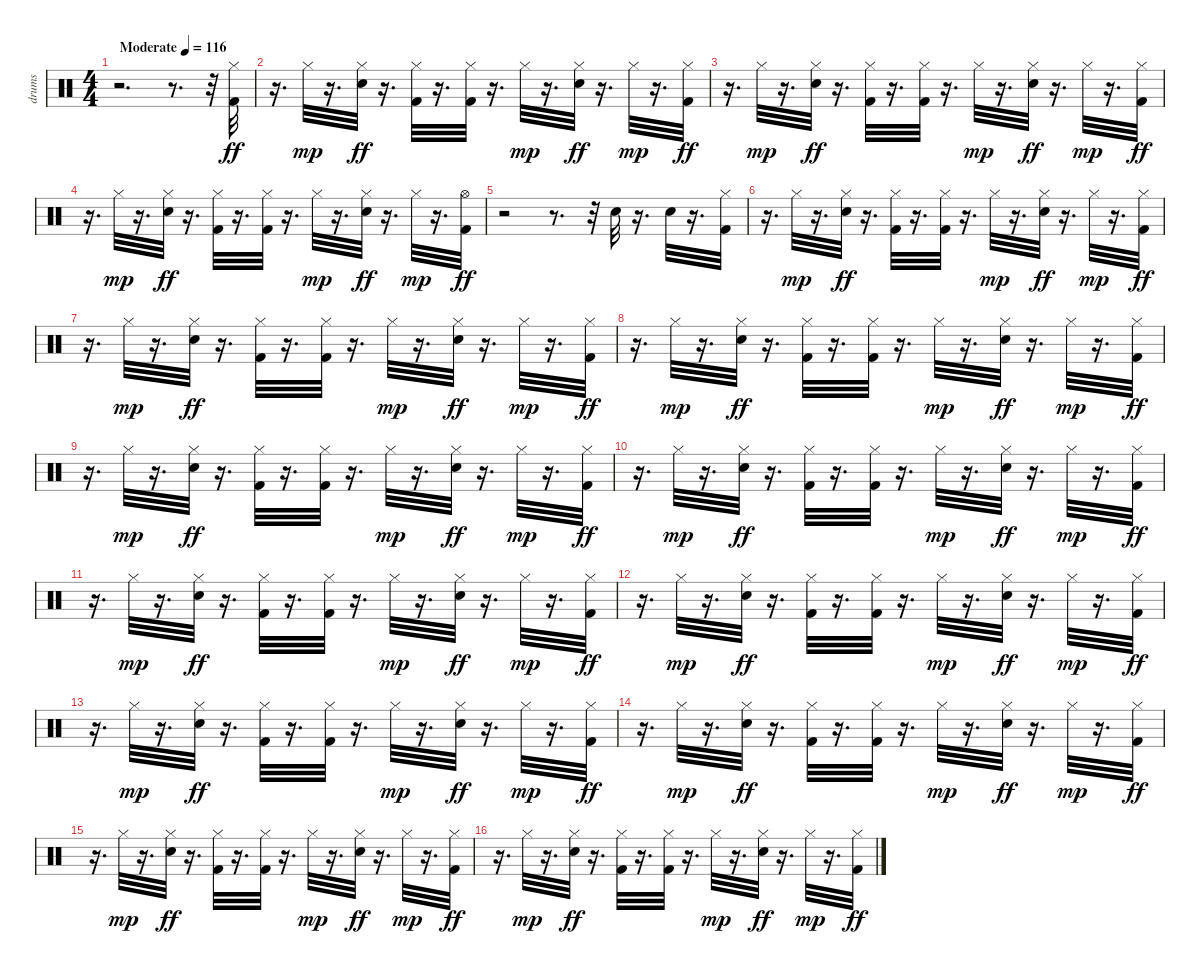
\track ("drums" "drums") {instrument percussion}
\staff {score}
\articulation defaults
\ts (4 4)
\tempo (116 "Moderate")
\clef neutral
\ks c
r.2{d dy ff} r.8{d} r.32 ("Hi-Hat (closed)" "Kick (hit) 2").32 |
r.16{d} "Hi-Hat (closed)".32{dy mp} r.16{d} ("Hi-Hat (closed)" "Snare (hit) 2").32{dy ff} r.16{d} ("Hi-Hat (closed)" "Kick (hit) 2").32 r.16{d} ("Hi-Hat (closed)" "Kick (hit) 2").32 r.16{d} "Hi-Hat (closed)".32{dy mp} r.16{d} ("Hi-Hat (closed)" "Snare (hit) 2").32{dy ff} r.16{d} "Hi-Hat (closed)".32{dy mp} r.16{d} ("Hi-Hat (closed)" "Kick (hit) 2").32{dy ff} |
r.16{d} "Hi-Hat (closed)".32{dy mp} r.16{d} ("Hi-Hat (closed)" "Snare (hit) 2").32{dy ff} r.16{d} ("Hi-Hat (closed)" "Kick (hit) 2").32 r.16{d} ("Hi-Hat (closed)" "Kick (hit) 2").32 r.16{d} "Hi-Hat (closed)".32{dy mp} r.16{d} ("Hi-Hat (closed)" "Snare (hit) 2").32{dy ff} r.16{d} "Hi-Hat (closed)".32{dy mp} r.16{d} ("Hi-Hat (closed)" "Kick (hit) 2").32{dy ff} |
r.16{d} "Hi-Hat (closed)".32{dy mp} r.16{d} ("Hi-Hat (closed)" "Snare (hit) 2").32{dy ff} r.16{d} ("Hi-Hat (closed)" "Kick (hit) 2").32 r.16{d} ("Hi-Hat (closed)" "Kick (hit) 2").32 r.16{d} "Hi-Hat (closed)".32{dy mp} r.16{d} ("Hi-Hat (closed)" "Snare (hit) 2").32{dy ff} r.16{d} "Hi-Hat (closed)".32{dy mp} r.16{d} ("Hi-Hat (open)" "Kick (hit) 2").32{dy ff} |
r.2 r.8{d} r.32 "Snare (hit) 2".32 r.16{d} "Snare (hit) 2".32 r.16{d} ("Hi-Hat (closed)" "Kick (hit) 2").32 |
r.16{d} "Hi-Hat (closed)".32{dy mp} r.16{d} ("Hi-Hat (closed)" "Snare (hit) 2").32{dy ff} r.16{d} ("Hi-Hat (closed)" "Kick (hit) 2").32 r.16{d} ("Hi-Hat (closed)" "Kick (hit) 2").32 r.16{d} "Hi-Hat (closed)".32{dy mp} r.16{d} ("Hi-Hat (closed)" "Snare (hit) 2").32{dy ff} r.16{d} "Hi-Hat (closed)".32{dy mp} r.16{d} ("Hi-Hat (closed)" "Kick (hit) 2").32{dy ff} |
r.16{d} "Hi-Hat (closed)".32{dy mp} r.16{d} ("Hi-Hat (closed)" "Snare (hit) 2").32{dy ff} r.16{d} ("Hi-Hat (closed)" "Kick (hit) 2").32 r.16{d} ("Hi-Hat (closed)" "Kick (hit) 2").32 r.16{d} "Hi-Hat (closed)".32{dy mp} r.16{d} ("Hi-Hat (closed)" "Snare (hit) 2").32{dy ff} r.16{d} "Hi-Hat (closed)".32{dy mp} r.16{d} ("Hi-Hat (closed)" "Kick (hit) 2").32{dy ff} |
r.16{d} "Hi-Hat (closed)".32{dy mp} r.16{d} ("Hi-Hat (closed)" "Snare (hit) 2").32{dy ff} r.16{d} ("Hi-Hat (closed)" "Kick (hit) 2").32 r.16{d} ("Hi-Hat (closed)" "Kick (hit) 2").32 r.16{d} "Hi-Hat (closed)".32{dy mp} r.16{d} ("Hi-Hat (closed)" "Snare (hit) 2").32{dy ff} r.16{d} "Hi-Hat (closed)".32{dy mp} r.16{d} ("Hi-Hat (closed)" "Kick (hit) 2").32{dy ff} |
r.16{d} "Hi-Hat (closed)".32{dy mp} r.16{d} ("Hi-Hat (closed)" "Snare (hit) 2").32{dy ff} r.16{d} ("Hi-Hat (closed)" "Kick (hit) 2").32 r.16{d} ("Hi-Hat (closed)" "Kick (hit) 2").32 r.16{d} "Hi-Hat (closed)".32{dy mp} r.16{d} ("Hi-Hat (closed)" "Snare (hit) 2").32{dy ff} r.16{d} "Hi-Hat (closed)".32{dy mp} r.16{d} ("Hi-Hat (closed)" "Kick (hit) 2").32{dy ff} |
r.16{d} "Hi-Hat (closed)".32{dy mp} r.16{d} ("Hi-Hat (closed)" "Snare (hit) 2").32{dy ff} r.16{d} ("Hi-Hat (closed)" "Kick (hit) 2").32 r.16{d} ("Hi-Hat (closed)" "Kick (hit) 2").32 r.16{d} "Hi-Hat (closed)".32{dy mp} r.16{d} ("Hi-Hat (closed)" "Snare (hit) 2").32{dy ff} r.16{d} "Hi-Hat (closed)".32{dy mp} r.16{d} ("Hi-Hat (closed)" "Kick (hit) 2").32{dy ff} |
r.16{d} "Hi-Hat (closed)".32{dy mp} r.16{d} ("Hi-Hat (closed)" "Snare (hit) 2").32{dy ff} r.16{d} ("Hi-Hat (closed)" "Kick (hit) 2").32 r.16{d} ("Hi-Hat (closed)" "Kick (hit) 2").32 r.16{d} "Hi-Hat (closed)".32{dy mp} r.16{d} ("Hi-Hat (closed)" "Snare (hit) 2").32{dy ff} r.16{d} "Hi-Hat (closed)".32{dy mp} r.16{d} ("Hi-Hat (closed)" "Kick (hit) 2").32{dy ff} |
r.16{d} "Hi-Hat (closed)".32{dy mp} r.16{d} ("Hi-Hat (closed)" "Snare (hit) 2").32{dy ff} r.16{d} ("Hi-Hat (closed)" "Kick (hit) 2").32 r.16{d} ("Hi-Hat (closed)" "Kick (hit) 2").32 r.16{d} "Hi-Hat (closed)".32{dy mp} r.16{d} ("Hi-Hat (closed)" "Snare (hit) 2").32{dy ff} r.16{d} "Hi-Hat (closed)".32{dy mp} r.16{d} ("Hi-Hat (closed)" "Kick (hit) 2").32{dy ff} |
r.16{d} "Hi-Hat (closed)".32{dy mp} r.16{d} ("Hi-Hat (closed)" "Snare (hit) 2").32{dy ff} r.16{d} ("Hi-Hat (closed)" "Kick (hit) 2").32 r.16{d} ("Hi-Hat (closed)" "Kick (hit) 2").32 r.16{d} "Hi-Hat (closed)".32{dy mp} r.16{d} ("Hi-Hat (closed)" "Snare (hit) 2").32{dy ff} r.16{d} "Hi-Hat (closed)".32{dy mp} r.16{d} ("Hi-Hat (closed)" "Kick (hit) 2").32{dy ff} |
r.16{d} "Hi-Hat (closed)".32{dy mp} r.16{d} ("Hi-Hat (closed)" "Snare (hit) 2").32{dy ff} r.16{d} ("Hi-Hat (closed)" "Kick (hit) 2").32 r.16{d} ("Hi-Hat (closed)" "Kick (hit) 2").32 r.16{d} "Hi-Hat (closed)".32{dy mp} r.16{d} ("Hi-Hat (closed)" "Snare (hit) 2").32{dy ff} r.16{d} "Hi-Hat (closed)".32{dy mp} r.16{d} ("Hi-Hat (closed)" "Kick (hit) 2").32{dy ff} |
r.16{d} "Hi-Hat (closed)".32{dy mp} r.16{d} ("Hi-Hat (closed)" "Snare (hit) 2").32{dy ff} r.16{d} ("Hi-Hat (closed)" "Kick (hit) 2").32 r.16{d} ("Hi-Hat (closed)" "Kick (hit) 2").32 r.16{d} "Hi-Hat (closed)".32{dy mp} r.16{d} ("Hi-Hat (closed)" "Snare (hit) 2").32{dy ff} r.16{d} "Hi-Hat (closed)".32{dy mp} r.16{d} ("Hi-Hat (closed)" "Kick (hit) 2").32{dy ff} |
r.16{d} "Hi-Hat (closed)".32{dy mp} r.16{d} ("Hi-Hat (closed)" "Snare (hit) 2").32{dy ff} r.16{d} ("Hi-Hat (closed)" "Kick (hit) 2").32 r.16{d} ("Hi-Hat (closed)" "Kick (hit) 2").32 r.16{d} "Hi-Hat (closed)".32{dy mp} r.16{d} ("Hi-Hat (closed)" "Snare (hit) 2").32{dy ff} r.16{d} "Hi-Hat (closed)".32{dy mp} r.16{d} ("Hi-Hat (closed)" "Kick (hit) 2").32{dy ff}
